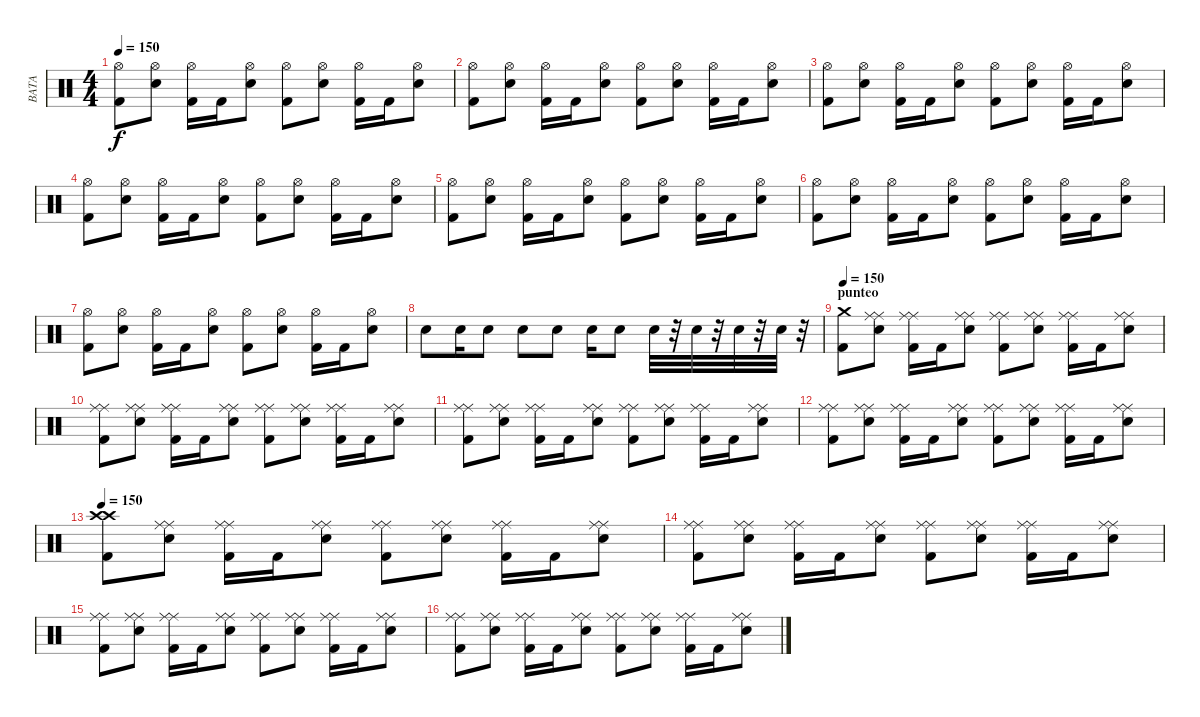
\track ("BATA" "BATA") {instrument percussion}
\staff {score}
\articulation defaults
\ts (4 4)
\tempo 150
\clef neutral
\ks c
("Hi-Hat (open)" "Kick (hit) 2").8{dy f} ("Hi-Hat (open)" "Snare (hit) 2").8 ("Hi-Hat (open)" "Kick (hit) 2").16 "Kick (hit) 2".16 ("Hi-Hat (open)" "Snare (hit) 2").8 ("Hi-Hat (open)" "Kick (hit) 2").8 ("Hi-Hat (open)" "Snare (hit) 2").8 ("Hi-Hat (open)" "Kick (hit) 2").16 "Kick (hit) 2".16 ("Hi-Hat (open)" "Snare (hit) 2").8 |
("Hi-Hat (open)" "Kick (hit) 2").8 ("Hi-Hat (open)" "Snare (hit) 2").8 ("Hi-Hat (open)" "Kick (hit) 2").16 "Kick (hit) 2".16 ("Hi-Hat (open)" "Snare (hit) 2").8 ("Hi-Hat (open)" "Kick (hit) 2").8 ("Hi-Hat (open)" "Snare (hit) 2").8 ("Hi-Hat (open)" "Kick (hit) 2").16 "Kick (hit) 2".16 ("Hi-Hat (open)" "Snare (hit) 2").8 |
("Hi-Hat (open)" "Kick (hit) 2").8 ("Hi-Hat (open)" "Snare (hit) 2").8 ("Hi-Hat (open)" "Kick (hit) 2").16 "Kick (hit) 2".16 ("Hi-Hat (open)" "Snare (hit) 2").8 ("Hi-Hat (open)" "Kick (hit) 2").8 ("Hi-Hat (open)" "Snare (hit) 2").8 ("Hi-Hat (open)" "Kick (hit) 2").16 "Kick (hit) 2".16 ("Hi-Hat (open)" "Snare (hit) 2").8 |
("Hi-Hat (open)" "Kick (hit) 2").8 ("Hi-Hat (open)" "Snare (hit) 2").8 ("Hi-Hat (open)" "Kick (hit) 2").16 "Kick (hit) 2".16 ("Hi-Hat (open)" "Snare (hit) 2").8 ("Hi-Hat (open)" "Kick (hit) 2").8 ("Hi-Hat (open)" "Snare (hit) 2").8 ("Hi-Hat (open)" "Kick (hit) 2").16 "Kick (hit) 2".16 ("Hi-Hat (open)" "Snare (hit) 2").8 |
("Hi-Hat (open)" "Kick (hit) 2").8 ("Hi-Hat (open)" "Snare (hit) 2").8 ("Hi-Hat (open)" "Kick (hit) 2").16 "Kick (hit) 2".16 ("Hi-Hat (open)" "Snare (hit) 2").8 ("Hi-Hat (open)" "Kick (hit) 2").8 ("Hi-Hat (open)" "Snare (hit) 2").8 ("Hi-Hat (open)" "Kick (hit) 2").16 "Kick (hit) 2".16 ("Hi-Hat (open)" "Snare (hit) 2").8 |
("Hi-Hat (open)" "Kick (hit) 2").8 ("Hi-Hat (open)" "Snare (hit) 2").8 ("Hi-Hat (open)" "Kick (hit) 2").16 "Kick (hit) 2".16 ("Hi-Hat (open)" "Snare (hit) 2").8 ("Hi-Hat (open)" "Kick (hit) 2").8 ("Hi-Hat (open)" "Snare (hit) 2").8 ("Hi-Hat (open)" "Kick (hit) 2").16 "Kick (hit) 2".16 ("Hi-Hat (open)" "Snare (hit) 2").8 |
("Hi-Hat (open)" "Kick (hit) 2").8 ("Hi-Hat (open)" "Snare (hit) 2").8 ("Hi-Hat (open)" "Kick (hit) 2").16 "Kick (hit) 2".16 ("Hi-Hat (open)" "Snare (hit) 2").8 ("Hi-Hat (open)" "Kick (hit) 2").8 ("Hi-Hat (open)" "Snare (hit) 2").8 ("Hi-Hat (open)" "Kick (hit) 2").16 "Kick (hit) 2".16 ("Hi-Hat (open)" "Snare (hit) 2").8 |
"Electric Snare (hit)".8 "Electric Snare (hit)".16 "Electric Snare (hit)".8 "Electric Snare (hit)".8 "Electric Snare (hit)".8 "Electric Snare (hit)".16 "Electric Snare (hit)".8 "Electric Snare (hit)".32 r.32 "Electric Snare (hit)".32 r.32 "Electric Snare (hit)".32 r.32 "Electric Snare (hit)".32 r.32 |
\section ("" "punteo")
\tempo 150
("Crash medium (hit)" "Kick (hit) 2").8 ("Ride (middle)" "Ride (middle)" "Snare (hit) 2").8 ("Ride (middle)" "Ride (middle)" "Kick (hit) 2").16 "Kick (hit) 2".16 ("Ride (middle)" "Ride (middle)" "Snare (hit) 2").8 ("Ride (middle)" "Ride (middle)" "Kick (hit) 2").8 ("Ride (middle)" "Ride (middle)" "Snare (hit) 2").8 ("Ride (middle)" "Ride (middle)" "Kick (hit) 2").16 "Kick (hit) 2".16 ("Ride (middle)" "Ride (middle)" "Snare (hit) 2").8 |
("Ride (middle)" "Ride (middle)" "Kick (hit) 2").8 ("Ride (middle)" "Ride (middle)" "Snare (hit) 2").8 ("Ride (middle)" "Ride (middle)" "Kick (hit) 2").16 "Kick (hit) 2".16 ("Ride (middle)" "Ride (middle)" "Snare (hit) 2").8 ("Ride (middle)" "Ride (middle)" "Kick (hit) 2").8 ("Ride (middle)" "Ride (middle)" "Snare (hit) 2").8 ("Ride (middle)" "Ride (middle)" "Kick (hit) 2").16 "Kick (hit) 2".16 ("Ride (middle)" "Ride (middle)" "Snare (hit) 2").8 |
("Ride (middle)" "Ride (middle)" "Kick (hit) 2").8 ("Ride (middle)" "Ride (middle)" "Snare (hit) 2").8 ("Ride (middle)" "Ride (middle)" "Kick (hit) 2").16 "Kick (hit) 2".16 ("Ride (middle)" "Ride (middle)" "Snare (hit) 2").8 ("Ride (middle)" "Ride (middle)" "Kick (hit) 2").8 ("Ride (middle)" "Ride (middle)" "Snare (hit) 2").8 ("Ride (middle)" "Ride (middle)" "Kick (hit) 2").16 "Kick (hit) 2".16 ("Ride (middle)" "Ride (middle)" "Snare (hit) 2").8 |
("Ride (middle)" "Ride (middle)" "Kick (hit) 2").8 ("Ride (middle)" "Ride (middle)" "Snare (hit) 2").8 ("Ride (middle)" "Ride (middle)" "Kick (hit) 2").16 "Kick (hit) 2".16 ("Ride (middle)" "Ride (middle)" "Snare (hit) 2").8 ("Ride (middle)" "Ride (middle)" "Kick (hit) 2").8 ("Ride (middle)" "Ride (middle)" "Snare (hit) 2").8 ("Ride (middle)" "Ride (middle)" "Kick (hit) 2").16 "Kick (hit) 2".16 ("Ride (middle)" "Ride (middle)" "Snare (hit) 2").8 |
\tempo 150
("Crash high (hit)" "Crash high (hit)" "Kick (hit) 2").8 ("Ride (middle)" "Ride (middle)" "Snare (hit) 2").8 ("Ride (middle)" "Ride (middle)" "Kick (hit) 2").16 "Kick (hit) 2".16 ("Ride (middle)" "Ride (middle)" "Snare (hit) 2").8 ("Ride (middle)" "Ride (middle)" "Kick (hit) 2").8 ("Ride (middle)" "Ride (middle)" "Snare (hit) 2").8 ("Ride (middle)" "Ride (middle)" "Kick (hit) 2").16 "Kick (hit) 2".16 ("Ride (middle)" "Ride (middle)" "Snare (hit) 2").8 |
("Ride (middle)" "Ride (middle)" "Kick (hit) 2").8 ("Ride (middle)" "Ride (middle)" "Snare (hit) 2").8 ("Ride (middle)" "Ride (middle)" "Kick (hit) 2").16 "Kick (hit) 2".16 ("Ride (middle)" "Ride (middle)" "Snare (hit) 2").8 ("Ride (middle)" "Ride (middle)" "Kick (hit) 2").8 ("Ride (middle)" "Ride (middle)" "Snare (hit) 2").8 ("Ride (middle)" "Ride (middle)" "Kick (hit) 2").16 "Kick (hit) 2".16 ("Ride (middle)" "Ride (middle)" "Snare (hit) 2").8 |
("Ride (middle)" "Ride (middle)" "Kick (hit) 2").8 ("Ride (middle)" "Ride (middle)" "Snare (hit) 2").8 ("Ride (middle)" "Ride (middle)" "Kick (hit) 2").16 "Kick (hit) 2".16 ("Ride (middle)" "Ride (middle)" "Snare (hit) 2").8 ("Ride (middle)" "Ride (middle)" "Kick (hit) 2").8 ("Ride (middle)" "Ride (middle)" "Snare (hit) 2").8 ("Ride (middle)" "Ride (middle)" "Kick (hit) 2").16 "Kick (hit) 2".16 ("Ride (middle)" "Ride (middle)" "Snare (hit) 2").8 |
("Ride (middle)" "Ride (middle)" "Kick (hit) 2").8 ("Ride (middle)" "Ride (middle)" "Snare (hit) 2").8 ("Ride (middle)" "Ride (middle)" "Kick (hit) 2").16 "Kick (hit) 2".16 ("Ride (middle)" "Ride (middle)" "Snare (hit) 2").8 ("Ride (middle)" "Ride (middle)" "Kick (hit) 2").8 ("Ride (middle)" "Ride (middle)" "Snare (hit) 2").8 ("Ride (middle)" "Ride (middle)" "Kick (hit) 2").16 "Kick (hit) 2".16 ("Ride (middle)" "Ride (middle)" "Snare (hit) 2").8
